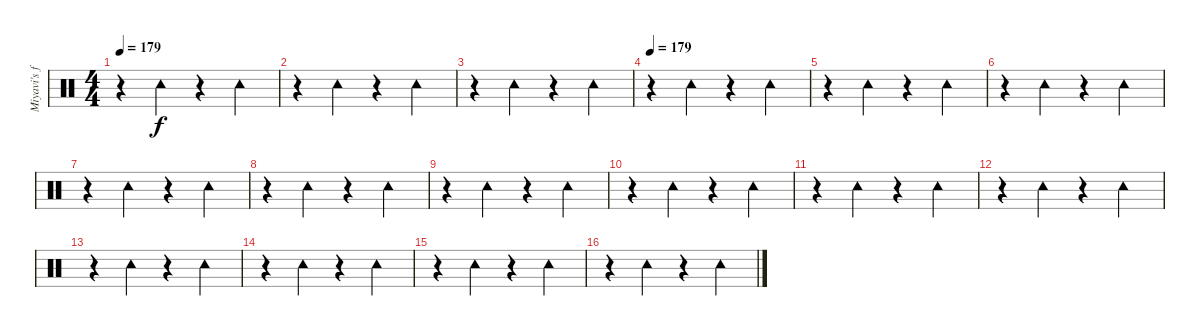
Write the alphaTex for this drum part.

\track ("Miyavi's foot" "Miyavi's f") {instrument percussion}
\staff {score}
\articulation defaults
\ts (4 4)
\tempo 179
\clef neutral
\ks c
r.4{dy f} "Tambourine (hit)".4 r.4 "Tambourine (hit)".4 |
r.4 "Tambourine (hit)".4 r.4 "Tambourine (hit)".4 |
r.4 "Tambourine (hit)".4 r.4 "Tambourine (hit)".4 |
\tempo 179
r.4 "Tambourine (hit)".4 r.4 "Tambourine (hit)".4 |
r.4 "Tambourine (hit)".4 r.4 "Tambourine (hit)".4 |
r.4 "Tambourine (hit)".4 r.4 "Tambourine (hit)".4 |
r.4 "Tambourine (hit)".4 r.4 "Tambourine (hit)".4 |
r.4 "Tambourine (hit)".4 r.4 "Tambourine (hit)".4 |
r.4 "Tambourine (hit)".4 r.4 "Tambourine (hit)".4 |
r.4 "Tambourine (hit)".4 r.4 "Tambourine (hit)".4 |
r.4 "Tambourine (hit)".4 r.4 "Tambourine (hit)".4 |
r.4 "Tambourine (hit)".4 r.4 "Tambourine (hit)".4 |
r.4 "Tambourine (hit)".4 r.4 "Tambourine (hit)".4 |
r.4 "Tambourine (hit)".4 r.4 "Tambourine (hit)".4 |
r.4 "Tambourine (hit)".4 r.4 "Tambourine (hit)".4 |
r.4 "Tambourine (hit)".4 r.4 "Tambourine (hit)".4
